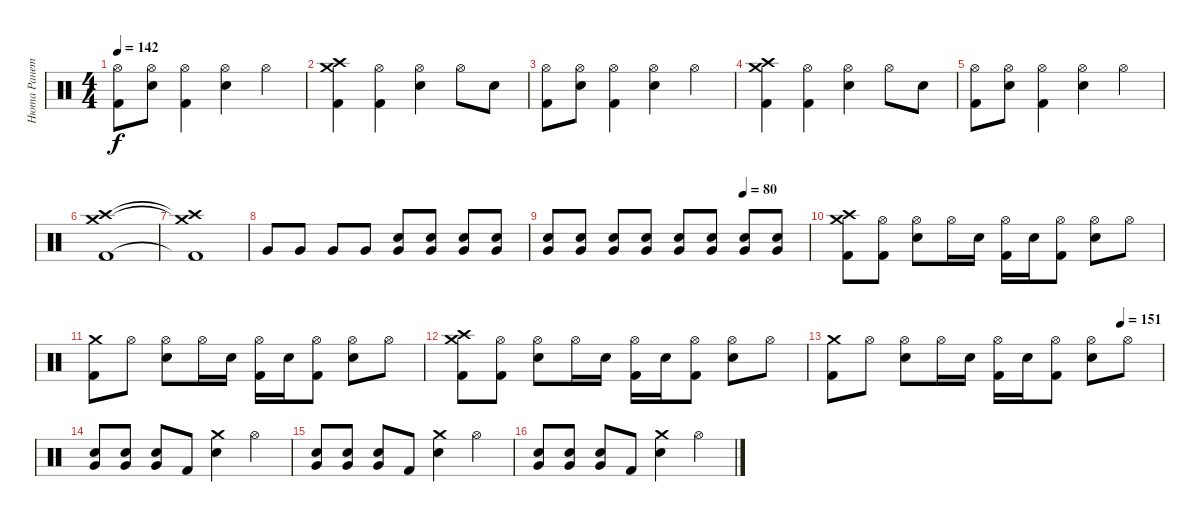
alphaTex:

\track ("Нюта Ранетка" "Нюта Ранет") {instrument percussion}
\staff {score}
\articulation defaults
\ts (4 4)
\tempo 142
\clef neutral
\ks c
("Hi-Hat (open)" "Kick (hit) 2").8{dy f} ("Hi-Hat (open)" "Snare (hit) 2").8 ("Hi-Hat (open)" "Kick (hit) 2").4 ("Hi-Hat (open)" "Snare (hit) 2").4 "Hi-Hat (open)".4 |
("Crash medium (hit)" "Crash high (hit)" "Kick (hit) 2").4 ("Hi-Hat (open)" "Kick (hit) 2").4 ("Hi-Hat (open)" "Snare (hit) 2").4 "Hi-Hat (open)".8 "Snare (hit) 2".8 |
("Hi-Hat (open)" "Kick (hit) 2").8 ("Hi-Hat (open)" "Snare (hit) 2").8 ("Hi-Hat (open)" "Kick (hit) 2").4 ("Hi-Hat (open)" "Snare (hit) 2").4 "Hi-Hat (open)".4 |
("Crash medium (hit)" "Crash high (hit)" "Kick (hit) 2").4 ("Hi-Hat (open)" "Kick (hit) 2").4 ("Hi-Hat (open)" "Snare (hit) 2").4 "Hi-Hat (open)".8 "Snare (hit) 2".8 |
("Hi-Hat (open)" "Kick (hit) 2").8 ("Hi-Hat (open)" "Snare (hit) 2").8 ("Hi-Hat (open)" "Kick (hit) 2").4 ("Hi-Hat (open)" "Snare (hit) 2").4 "Hi-Hat (open)".4 |
("Crash medium (hit)" "Crash high (hit)" "Kick (hit) 2").1 |
("Crash medium (hit)"{t} "Crash high (hit)"{t} "Kick (hit) 2"{t}).1 |
"Very Low Tom (hit)".8 "Very Low Tom (hit)".8 "Very Low Tom (hit)".8 "Very Low Tom (hit)".8 ("Very Low Tom (hit)" "Snare (hit) 2").8 ("Very Low Tom (hit)" "Snare (hit) 2").8 ("Very Low Tom (hit)" "Snare (hit) 2").8 ("Very Low Tom (hit)" "Snare (hit) 2").8 |
\tempo (80 0.75)
("Very Low Tom (hit)" "Snare (hit) 2").8 ("Very Low Tom (hit)" "Snare (hit) 2").8 ("Very Low Tom (hit)" "Snare (hit) 2").8 ("Very Low Tom (hit)" "Snare (hit) 2").8 ("Very Low Tom (hit)" "Snare (hit) 2").8 ("Very Low Tom (hit)" "Snare (hit) 2").8 ("Very Low Tom (hit)" "Snare (hit) 2").8 ("Very Low Tom (hit)" "Snare (hit) 2").8 |
("Crash medium (hit)" "Crash high (hit)" "Kick (hit) 2").8 ("Hi-Hat (open)" "Kick (hit) 2").8 ("Hi-Hat (open)" "Snare (hit) 2").8 "Hi-Hat (open)".16 "Snare (hit) 2".16 ("Hi-Hat (open)" "Kick (hit) 2").16 "Snare (hit) 2".16 ("Hi-Hat (open)" "Kick (hit) 2").8 ("Hi-Hat (open)" "Snare (hit) 2").8 "Hi-Hat (open)".8 |
("Crash medium (hit)" "Kick (hit) 2").8 "Hi-Hat (open)".8 ("Hi-Hat (open)" "Snare (hit) 2").8 "Hi-Hat (open)".16 "Snare (hit) 2".16 ("Hi-Hat (open)" "Kick (hit) 2").16 "Snare (hit) 2".16 ("Hi-Hat (open)" "Kick (hit) 2").8 ("Hi-Hat (open)" "Snare (hit) 2").8 "Hi-Hat (open)".8 |
("Crash medium (hit)" "Crash high (hit)" "Kick (hit) 2").8 ("Hi-Hat (open)" "Kick (hit) 2").8 ("Hi-Hat (open)" "Snare (hit) 2").8 "Hi-Hat (open)".16 "Snare (hit) 2".16 ("Hi-Hat (open)" "Kick (hit) 2").16 "Snare (hit) 2".16 ("Hi-Hat (open)" "Kick (hit) 2").8 ("Hi-Hat (open)" "Snare (hit) 2").8 "Hi-Hat (open)".8 |
\tempo (151 0.875)
("Crash medium (hit)" "Kick (hit) 2").8 "Hi-Hat (open)".8 ("Hi-Hat (open)" "Snare (hit) 2").8 "Hi-Hat (open)".16 "Snare (hit) 2".16 ("Hi-Hat (open)" "Kick (hit) 2").16 "Snare (hit) 2".16 ("Hi-Hat (open)" "Kick (hit) 2").8 ("Hi-Hat (open)" "Snare (hit) 2").8 "Hi-Hat (open)".8 |
("Very Low Tom (hit)" "Snare (hit) 2").8 ("Very Low Tom (hit)" "Snare (hit) 2").8 ("Very Low Tom (hit)" "Snare (hit) 2").8 "Kick (hit) 2".8 ("Crash medium (hit)" "Snare (hit) 2").4 "Hi-Hat (open)".4 |
("Very Low Tom (hit)" "Snare (hit) 2").8 ("Very Low Tom (hit)" "Snare (hit) 2").8 ("Very Low Tom (hit)" "Snare (hit) 2").8 "Kick (hit) 2".8 ("Crash medium (hit)" "Snare (hit) 2").4 "Hi-Hat (open)".4 |
("Very Low Tom (hit)" "Snare (hit) 2").8 ("Very Low Tom (hit)" "Snare (hit) 2").8 ("Very Low Tom (hit)" "Snare (hit) 2").8 "Kick (hit) 2".8 ("Crash medium (hit)" "Snare (hit) 2").4 "Hi-Hat (open)".4
